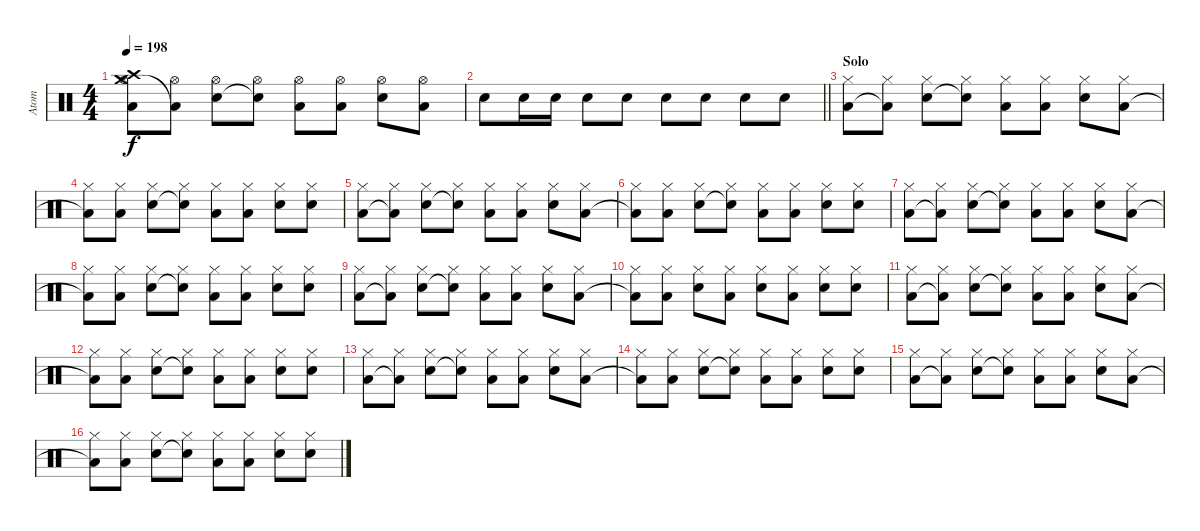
\track ("Atom" "Atom") {instrument percussion}
\staff
\articulation defaults
\ts (4 4)
\tempo 198
\clef neutral
\ks c
("Crash medium (hit)" "Low Floor Tom (hit)" "Hi-Hat (open)" "Crash high (hit)").8{dy f} ("Low Floor Tom (hit)"{t} "Hi-Hat (open)").8 ("Snare (hit) 2" "Hi-Hat (open)").8 ("Snare (hit) 2"{t} "Hi-Hat (open)").8 ("Low Floor Tom (hit)" "Hi-Hat (open)").8 ("Low Floor Tom (hit)" "Hi-Hat (open)").8 ("Snare (hit) 2" "Hi-Hat (open)").8 ("Low Floor Tom (hit)" "Hi-Hat (open)").8 |
\barLineRight lightlight "Snare (hit) 2".8 "Snare (hit) 2".16 "Snare (hit) 2".16 "Snare (hit) 2".8 "Snare (hit) 2".8 "Snare (hit) 2".8 "Snare (hit) 2".8 "Snare (hit) 2".8 "Snare (hit) 2".8
|
\section ("" "Solo")
("Low Floor Tom (hit)" "Hi-Hat (closed)").8 ("Low Floor Tom (hit)"{t} "Hi-Hat (closed)").8 ("Snare (hit) 2" "Hi-Hat (closed)").8 ("Snare (hit) 2"{t} "Hi-Hat (closed)").8 ("Low Floor Tom (hit)" "Hi-Hat (closed)").8 ("Low Floor Tom (hit)" "Hi-Hat (closed)").8 ("Snare (hit) 2" "Hi-Hat (closed)").8 ("Low Floor Tom (hit)" "Hi-Hat (closed)").8 |
("Low Floor Tom (hit)"{t} "Hi-Hat (closed)").8 ("Low Floor Tom (hit)" "Hi-Hat (closed)").8 ("Snare (hit) 2" "Hi-Hat (closed)").8 ("Snare (hit) 2"{t} "Hi-Hat (closed)").8 ("Low Floor Tom (hit)" "Hi-Hat (closed)").8 ("Low Floor Tom (hit)" "Hi-Hat (closed)").8 ("Snare (hit) 2" "Hi-Hat (closed)").8 ("Snare (hit) 2" "Hi-Hat (closed)").8 |
("Low Floor Tom (hit)" "Hi-Hat (closed)").8 ("Low Floor Tom (hit)"{t} "Hi-Hat (closed)").8 ("Snare (hit) 2" "Hi-Hat (closed)").8 ("Snare (hit) 2"{t} "Hi-Hat (closed)").8 ("Low Floor Tom (hit)" "Hi-Hat (closed)").8 ("Low Floor Tom (hit)" "Hi-Hat (closed)").8 ("Snare (hit) 2" "Hi-Hat (closed)").8 ("Low Floor Tom (hit)" "Hi-Hat (closed)").8 |
("Low Floor Tom (hit)"{t} "Hi-Hat (closed)").8 ("Low Floor Tom (hit)" "Hi-Hat (closed)").8 ("Snare (hit) 2" "Hi-Hat (closed)").8 ("Snare (hit) 2"{t} "Hi-Hat (closed)").8 ("Low Floor Tom (hit)" "Hi-Hat (closed)").8 ("Low Floor Tom (hit)" "Hi-Hat (closed)").8 ("Snare (hit) 2" "Hi-Hat (closed)").8 ("Snare (hit) 2" "Hi-Hat (closed)").8 |
("Low Floor Tom (hit)" "Hi-Hat (closed)").8 ("Low Floor Tom (hit)"{t} "Hi-Hat (closed)").8 ("Snare (hit) 2" "Hi-Hat (closed)").8 ("Snare (hit) 2"{t} "Hi-Hat (closed)").8 ("Low Floor Tom (hit)" "Hi-Hat (closed)").8 ("Low Floor Tom (hit)" "Hi-Hat (closed)").8 ("Snare (hit) 2" "Hi-Hat (closed)").8 ("Low Floor Tom (hit)" "Hi-Hat (closed)").8 |
("Low Floor Tom (hit)"{t} "Hi-Hat (closed)").8 ("Low Floor Tom (hit)" "Hi-Hat (closed)").8 ("Snare (hit) 2" "Hi-Hat (closed)").8 ("Snare (hit) 2"{t} "Hi-Hat (closed)").8 ("Low Floor Tom (hit)" "Hi-Hat (closed)").8 ("Low Floor Tom (hit)" "Hi-Hat (closed)").8 ("Snare (hit) 2" "Hi-Hat (closed)").8 ("Snare (hit) 2" "Hi-Hat (closed)").8 |
("Low Floor Tom (hit)" "Hi-Hat (closed)").8 ("Low Floor Tom (hit)"{t} "Hi-Hat (closed)").8 ("Snare (hit) 2" "Hi-Hat (closed)").8 ("Snare (hit) 2"{t} "Hi-Hat (closed)").8 ("Low Floor Tom (hit)" "Hi-Hat (closed)").8 ("Low Floor Tom (hit)" "Hi-Hat (closed)").8 ("Snare (hit) 2" "Hi-Hat (closed)").8 ("Low Floor Tom (hit)" "Hi-Hat (closed)").8 |
("Low Floor Tom (hit)"{t} "Hi-Hat (closed)").8 ("Low Floor Tom (hit)" "Hi-Hat (closed)").8 ("Snare (hit) 2" "Hi-Hat (closed)").8 ("Low Floor Tom (hit)" "Hi-Hat (closed)").8 ("Snare (hit) 2" "Hi-Hat (closed)").8 ("Low Floor Tom (hit)" "Hi-Hat (closed)").8 ("Snare (hit) 2" "Hi-Hat (closed)").8 ("Snare (hit) 2" "Hi-Hat (closed)").8 |
("Low Floor Tom (hit)" "Hi-Hat (closed)").8 ("Low Floor Tom (hit)"{t} "Hi-Hat (closed)").8 ("Snare (hit) 2" "Hi-Hat (closed)").8 ("Snare (hit) 2"{t} "Hi-Hat (closed)").8 ("Low Floor Tom (hit)" "Hi-Hat (closed)").8 ("Low Floor Tom (hit)" "Hi-Hat (closed)").8 ("Snare (hit) 2" "Hi-Hat (closed)").8 ("Low Floor Tom (hit)" "Hi-Hat (closed)").8 |
("Low Floor Tom (hit)"{t} "Hi-Hat (closed)").8 ("Low Floor Tom (hit)" "Hi-Hat (closed)").8 ("Snare (hit) 2" "Hi-Hat (closed)").8 ("Snare (hit) 2"{t} "Hi-Hat (closed)").8 ("Low Floor Tom (hit)" "Hi-Hat (closed)").8 ("Low Floor Tom (hit)" "Hi-Hat (closed)").8 ("Snare (hit) 2" "Hi-Hat (closed)").8 ("Snare (hit) 2" "Hi-Hat (closed)").8 |
("Low Floor Tom (hit)" "Hi-Hat (closed)").8 ("Low Floor Tom (hit)"{t} "Hi-Hat (closed)").8 ("Snare (hit) 2" "Hi-Hat (closed)").8 ("Snare (hit) 2"{t} "Hi-Hat (closed)").8 ("Low Floor Tom (hit)" "Hi-Hat (closed)").8 ("Low Floor Tom (hit)" "Hi-Hat (closed)").8 ("Snare (hit) 2" "Hi-Hat (closed)").8 ("Low Floor Tom (hit)" "Hi-Hat (closed)").8 |
("Low Floor Tom (hit)"{t} "Hi-Hat (closed)").8 ("Low Floor Tom (hit)" "Hi-Hat (closed)").8 ("Snare (hit) 2" "Hi-Hat (closed)").8 ("Snare (hit) 2"{t} "Hi-Hat (closed)").8 ("Low Floor Tom (hit)" "Hi-Hat (closed)").8 ("Low Floor Tom (hit)" "Hi-Hat (closed)").8 ("Snare (hit) 2" "Hi-Hat (closed)").8 ("Snare (hit) 2" "Hi-Hat (closed)").8 |
("Low Floor Tom (hit)" "Hi-Hat (closed)").8 ("Low Floor Tom (hit)"{t} "Hi-Hat (closed)").8 ("Snare (hit) 2" "Hi-Hat (closed)").8 ("Snare (hit) 2"{t} "Hi-Hat (closed)").8 ("Low Floor Tom (hit)" "Hi-Hat (closed)").8 ("Low Floor Tom (hit)" "Hi-Hat (closed)").8 ("Snare (hit) 2" "Hi-Hat (closed)").8 ("Low Floor Tom (hit)" "Hi-Hat (closed)").8 |
("Low Floor Tom (hit)"{t} "Hi-Hat (closed)").8 ("Low Floor Tom (hit)" "Hi-Hat (closed)").8 ("Snare (hit) 2" "Hi-Hat (closed)").8 ("Snare (hit) 2"{t} "Hi-Hat (closed)").8 ("Low Floor Tom (hit)" "Hi-Hat (closed)").8 ("Low Floor Tom (hit)" "Hi-Hat (closed)").8 ("Snare (hit) 2" "Hi-Hat (closed)").8 ("Snare (hit) 2" "Hi-Hat (closed)").8
